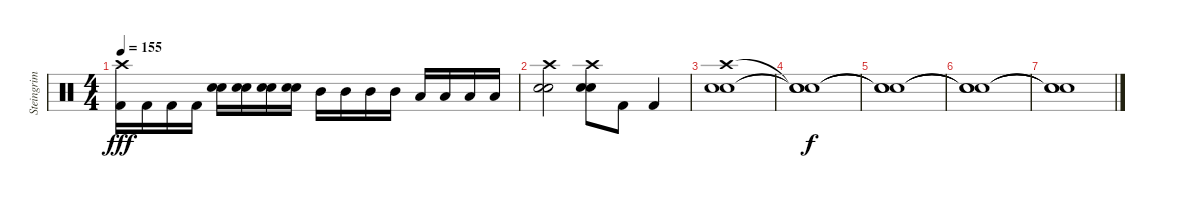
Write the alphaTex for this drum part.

\track ("Steingrim" "Steingrim") {instrument percussion}
\staff {score}
\articulation defaults
\ts (4 4)
\tempo 155
\clef neutral
\ks c
("Kick (hit) 2" "Crash high (hit)").16{dy fff} "Kick (hit) 2".16 "Kick (hit) 2".16 "Kick (hit) 2".16 ("Snare (hit) 2" "Electric Snare (hit)").16 ("Snare (hit) 2" "Electric Snare (hit)").16 ("Snare (hit) 2" "Electric Snare (hit)").16 ("Snare (hit) 2" "Electric Snare (hit)").16 "Mid Tom (hit)".16 "Mid Tom (hit)".16 "Mid Tom (hit)".16 "Mid Tom (hit)".16 "Low Tom (hit)".16 "Low Tom (hit)".16 "Low Tom (hit)".16 "Low Tom (hit)".16 |
("Snare (hit) 2" "Electric Snare (hit)" "Crash high (hit)").2 ("Snare (hit) 2" "Electric Snare (hit)" "Crash high (hit)").8 "Kick (hit) 2".8 "Kick (hit) 2".4 |
("Snare (hit) 2" "Electric Snare (hit)" "Crash high (hit)").1 |
("Snare (hit)"{t} "Snare (hit)"{t} "Snare (hit)"{t}).1{dy f} |
("Snare (hit)"{t} "Snare (hit)"{t} "Snare (hit)"{t}).1 |
("Snare (hit)"{t} "Snare (hit)"{t} "Snare (hit)"{t}).1 |
("Snare (hit)"{t} "Snare (hit)"{t} "Snare (hit)"{t}).1
